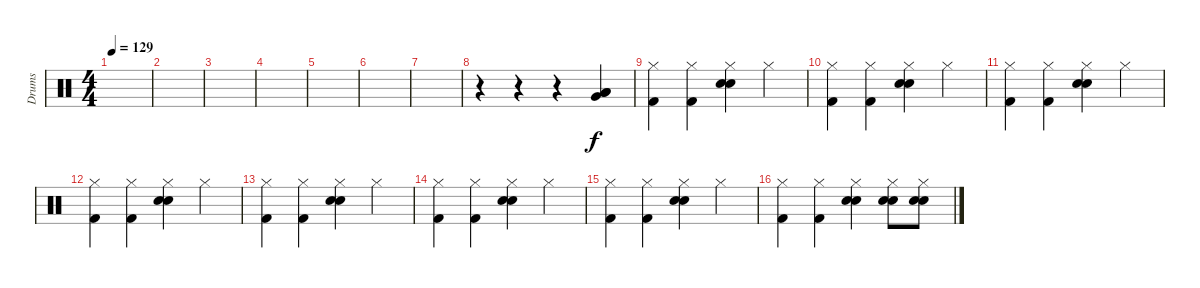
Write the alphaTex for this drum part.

\track ("Drums" "Drums") {instrument percussion}
\staff {score}
\articulation defaults
\ts (4 4)
\tempo 129
\clef neutral
\ks c
|
|
|
|
|
|
|
r.4 r.4 r.4 ("Low Floor Tom (hit)" "Very Low Tom (hit)" "Low Tom (hit)").4 |
("Kick (hit) 2" "Hi-Hat (closed)").4 ("Kick (hit) 2" "Hi-Hat (closed)").4 ("Snare (hit) 2" "Electric Snare (hit)" "Hi-Hat (closed)").4 "Hi-Hat (closed)".4 |
("Kick (hit) 2" "Hi-Hat (closed)").4 ("Kick (hit) 2" "Hi-Hat (closed)").4 ("Snare (hit) 2" "Electric Snare (hit)" "Hi-Hat (closed)").4 "Hi-Hat (closed)".4 |
("Kick (hit) 2" "Hi-Hat (closed)").4 ("Kick (hit) 2" "Hi-Hat (closed)").4 ("Snare (hit) 2" "Electric Snare (hit)" "Hi-Hat (closed)").4 "Hi-Hat (closed)".4 |
("Kick (hit) 2" "Hi-Hat (closed)").4 ("Kick (hit) 2" "Hi-Hat (closed)").4 ("Snare (hit) 2" "Electric Snare (hit)" "Hi-Hat (closed)").4 "Hi-Hat (closed)".4 |
("Kick (hit) 2" "Hi-Hat (closed)").4 ("Kick (hit) 2" "Hi-Hat (closed)").4 ("Snare (hit) 2" "Electric Snare (hit)" "Hi-Hat (closed)").4 "Hi-Hat (closed)".4 |
("Kick (hit) 2" "Hi-Hat (closed)").4 ("Kick (hit) 2" "Hi-Hat (closed)").4 ("Snare (hit) 2" "Electric Snare (hit)" "Hi-Hat (closed)").4 "Hi-Hat (closed)".4 |
("Kick (hit) 2" "Hi-Hat (closed)").4 ("Kick (hit) 2" "Hi-Hat (closed)").4 ("Snare (hit) 2" "Electric Snare (hit)" "Hi-Hat (closed)").4 "Hi-Hat (closed)".4 |
("Kick (hit) 2" "Hi-Hat (closed)").4 ("Kick (hit) 2" "Hi-Hat (closed)").4 ("Snare (hit) 2" "Electric Snare (hit)" "Hi-Hat (closed)").4 ("Electric Snare (hit)" "Snare (hit) 2" "Hi-Hat (closed)").8 ("Electric Snare (hit)" "Snare (hit) 2" "Hi-Hat (closed)").8
